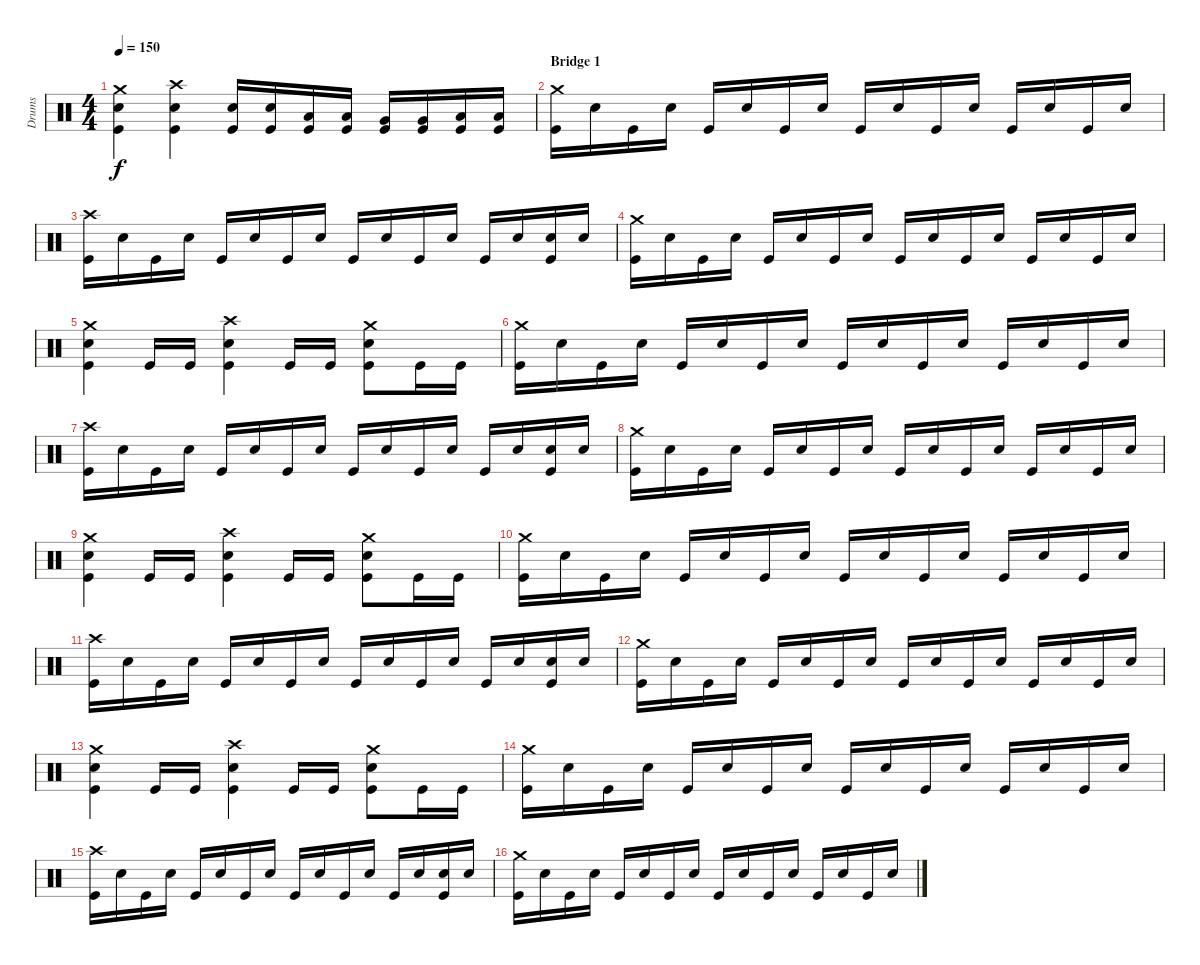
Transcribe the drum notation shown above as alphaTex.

\track ("Drums" "Drums") {instrument percussion}
\staff {score}
\articulation defaults
\ts (4 4)
\tempo 150
\clef neutral
\ks c
("Crash medium (hit)" "Electric Snare (hit)" "Kick (hit)").4{dy f} ("Crash high (hit)" "Electric Snare (hit)" "Kick (hit)").4 ("Electric Snare (hit)" "Kick (hit)").16 ("Electric Snare (hit)" "Kick (hit)").16 ("Low Tom (hit)" "Kick (hit)").16 ("Low Tom (hit)" "Kick (hit)").16 ("Very Low Tom (hit)" "Kick (hit)").16 ("Very Low Tom (hit)" "Kick (hit)").16 ("Low Floor Tom (hit)" "Kick (hit)").16 ("Low Floor Tom (hit)" "Kick (hit)").16 |
\section ("" "Bridge 1")
("Crash medium (hit)" "Kick (hit)").16 "Electric Snare (hit)".16 "Kick (hit)".16 "Electric Snare (hit)".16 "Kick (hit)".16 "Electric Snare (hit)".16 "Kick (hit)".16 "Electric Snare (hit)".16 "Kick (hit)".16 "Electric Snare (hit)".16 "Kick (hit)".16 "Electric Snare (hit)".16 "Kick (hit)".16 "Electric Snare (hit)".16 "Kick (hit)".16 "Electric Snare (hit)".16 |
("Crash high (hit)" "Kick (hit)").16 "Electric Snare (hit)".16 "Kick (hit)".16 "Electric Snare (hit)".16 "Kick (hit)".16 "Electric Snare (hit)".16 "Kick (hit)".16 "Electric Snare (hit)".16 "Kick (hit)".16 "Electric Snare (hit)".16 "Kick (hit)".16 "Electric Snare (hit)".16 "Kick (hit)".16 "Electric Snare (hit)".16 ("Electric Snare (hit)" "Kick (hit)").16 "Electric Snare (hit)".16 |
("Crash medium (hit)" "Kick (hit)").16 "Electric Snare (hit)".16 "Kick (hit)".16 "Electric Snare (hit)".16 "Kick (hit)".16 "Electric Snare (hit)".16 "Kick (hit)".16 "Electric Snare (hit)".16 "Kick (hit)".16 "Electric Snare (hit)".16 "Kick (hit)".16 "Electric Snare (hit)".16 "Kick (hit)".16 "Electric Snare (hit)".16 "Kick (hit)".16 "Electric Snare (hit)".16 |
("Crash medium (hit)" "Electric Snare (hit)" "Kick (hit)").4 "Kick (hit)".16 "Kick (hit)".16 ("Crash high (hit)" "Electric Snare (hit)" "Kick (hit)").4 "Kick (hit)".16 "Kick (hit)".16 ("Crash medium (hit)" "Electric Snare (hit)" "Kick (hit)").8 "Kick (hit)".16 "Kick (hit)".16 |
("Crash medium (hit)" "Kick (hit)").16 "Electric Snare (hit)".16 "Kick (hit)".16 "Electric Snare (hit)".16 "Kick (hit)".16 "Electric Snare (hit)".16 "Kick (hit)".16 "Electric Snare (hit)".16 "Kick (hit)".16 "Electric Snare (hit)".16 "Kick (hit)".16 "Electric Snare (hit)".16 "Kick (hit)".16 "Electric Snare (hit)".16 "Kick (hit)".16 "Electric Snare (hit)".16 |
("Crash high (hit)" "Kick (hit)").16 "Electric Snare (hit)".16 "Kick (hit)".16 "Electric Snare (hit)".16 "Kick (hit)".16 "Electric Snare (hit)".16 "Kick (hit)".16 "Electric Snare (hit)".16 "Kick (hit)".16 "Electric Snare (hit)".16 "Kick (hit)".16 "Electric Snare (hit)".16 "Kick (hit)".16 "Electric Snare (hit)".16 ("Electric Snare (hit)" "Kick (hit)").16 "Electric Snare (hit)".16 |
("Crash medium (hit)" "Kick (hit)").16 "Electric Snare (hit)".16 "Kick (hit)".16 "Electric Snare (hit)".16 "Kick (hit)".16 "Electric Snare (hit)".16 "Kick (hit)".16 "Electric Snare (hit)".16 "Kick (hit)".16 "Electric Snare (hit)".16 "Kick (hit)".16 "Electric Snare (hit)".16 "Kick (hit)".16 "Electric Snare (hit)".16 "Kick (hit)".16 "Electric Snare (hit)".16 |
("Crash medium (hit)" "Electric Snare (hit)" "Kick (hit)").4 "Kick (hit)".16 "Kick (hit)".16 ("Crash high (hit)" "Electric Snare (hit)" "Kick (hit)").4 "Kick (hit)".16 "Kick (hit)".16 ("Crash medium (hit)" "Electric Snare (hit)" "Kick (hit)").8 "Kick (hit)".16 "Kick (hit)".16 |
("Crash medium (hit)" "Kick (hit)").16 "Electric Snare (hit)".16 "Kick (hit)".16 "Electric Snare (hit)".16 "Kick (hit)".16 "Electric Snare (hit)".16 "Kick (hit)".16 "Electric Snare (hit)".16 "Kick (hit)".16 "Electric Snare (hit)".16 "Kick (hit)".16 "Electric Snare (hit)".16 "Kick (hit)".16 "Electric Snare (hit)".16 "Kick (hit)".16 "Electric Snare (hit)".16 |
("Crash high (hit)" "Kick (hit)").16 "Electric Snare (hit)".16 "Kick (hit)".16 "Electric Snare (hit)".16 "Kick (hit)".16 "Electric Snare (hit)".16 "Kick (hit)".16 "Electric Snare (hit)".16 "Kick (hit)".16 "Electric Snare (hit)".16 "Kick (hit)".16 "Electric Snare (hit)".16 "Kick (hit)".16 "Electric Snare (hit)".16 ("Electric Snare (hit)" "Kick (hit)").16 "Electric Snare (hit)".16 |
("Crash medium (hit)" "Kick (hit)").16 "Electric Snare (hit)".16 "Kick (hit)".16 "Electric Snare (hit)".16 "Kick (hit)".16 "Electric Snare (hit)".16 "Kick (hit)".16 "Electric Snare (hit)".16 "Kick (hit)".16 "Electric Snare (hit)".16 "Kick (hit)".16 "Electric Snare (hit)".16 "Kick (hit)".16 "Electric Snare (hit)".16 "Kick (hit)".16 "Electric Snare (hit)".16 |
("Crash medium (hit)" "Electric Snare (hit)" "Kick (hit)").4 "Kick (hit)".16 "Kick (hit)".16 ("Crash high (hit)" "Electric Snare (hit)" "Kick (hit)").4 "Kick (hit)".16 "Kick (hit)".16 ("Crash medium (hit)" "Electric Snare (hit)" "Kick (hit)").8 "Kick (hit)".16 "Kick (hit)".16 |
("Crash medium (hit)" "Kick (hit)").16 "Electric Snare (hit)".16 "Kick (hit)".16 "Electric Snare (hit)".16 "Kick (hit)".16 "Electric Snare (hit)".16 "Kick (hit)".16 "Electric Snare (hit)".16 "Kick (hit)".16 "Electric Snare (hit)".16 "Kick (hit)".16 "Electric Snare (hit)".16 "Kick (hit)".16 "Electric Snare (hit)".16 "Kick (hit)".16 "Electric Snare (hit)".16 |
("Crash high (hit)" "Kick (hit)").16 "Electric Snare (hit)".16 "Kick (hit)".16 "Electric Snare (hit)".16 "Kick (hit)".16 "Electric Snare (hit)".16 "Kick (hit)".16 "Electric Snare (hit)".16 "Kick (hit)".16 "Electric Snare (hit)".16 "Kick (hit)".16 "Electric Snare (hit)".16 "Kick (hit)".16 "Electric Snare (hit)".16 ("Electric Snare (hit)" "Kick (hit)").16 "Electric Snare (hit)".16 |
("Crash medium (hit)" "Kick (hit)").16 "Electric Snare (hit)".16 "Kick (hit)".16 "Electric Snare (hit)".16 "Kick (hit)".16 "Electric Snare (hit)".16 "Kick (hit)".16 "Electric Snare (hit)".16 "Kick (hit)".16 "Electric Snare (hit)".16 "Kick (hit)".16 "Electric Snare (hit)".16 "Kick (hit)".16 "Electric Snare (hit)".16 "Kick (hit)".16 "Electric Snare (hit)".16
